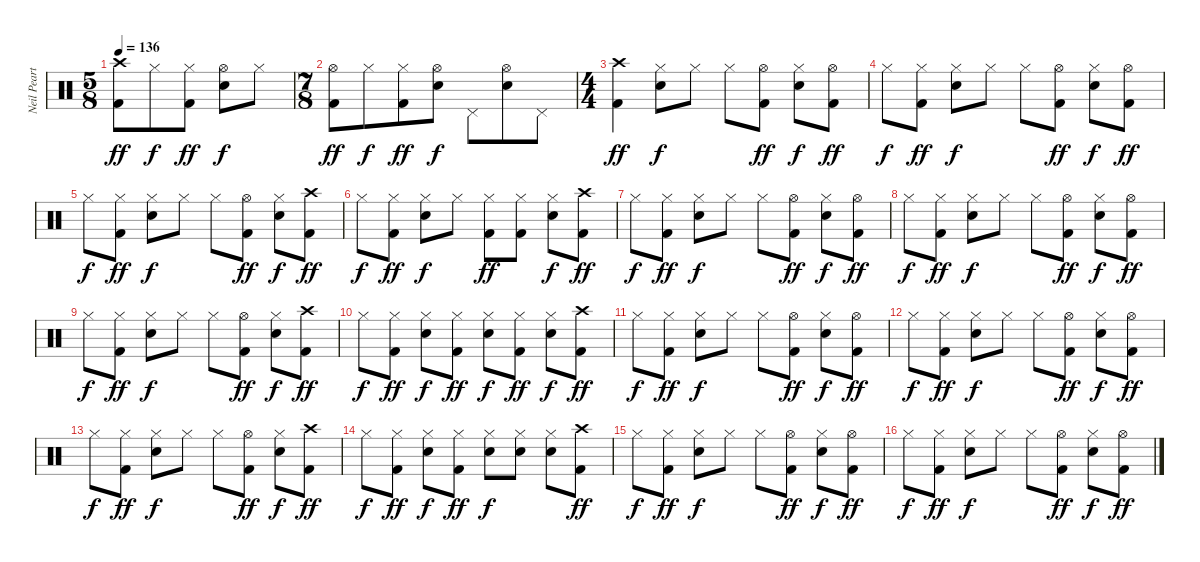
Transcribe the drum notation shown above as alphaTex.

\track ("Neil Peart" "Neil Peart") {instrument percussion}
\staff {score}
\articulation defaults
\ts (5 8)
\tempo 136
\clef neutral
\ks c
("Crash high (hit)" "Kick (hit) 2").8{dy ff} "Hi-Hat (closed)".8{dy f} ("Hi-Hat (closed)" "Kick (hit) 2").8{dy ff} ("Hi-Hat (open)" "Snare (hit) 2").8{dy f} "Hi-Hat (closed)".8 |
\ts (7 8)
("Hi-Hat (open)" "Kick (hit) 2").8{dy ff} "Hi-Hat (closed)".8{dy f} ("Hi-Hat (closed)" "Kick (hit) 2").8{dy ff} ("Hi-Hat (open)" "Snare (hit) 2").8{dy f} "Pedal Hi-Hat (hit)".8 ("Hi-Hat (open)" "Snare (hit) 2").8 "Pedal Hi-Hat (hit)".8 |
\ts (4 4)
("Crash high (hit)" "Kick (hit) 2").4{dy ff} ("Hi-Hat (closed)" "Snare (hit) 2").8{dy f} "Hi-Hat (closed)".8 "Hi-Hat (closed)".8 ("Hi-Hat (open)" "Kick (hit) 2").8{dy ff} ("Hi-Hat (closed)" "Snare (hit) 2").8{dy f} ("Hi-Hat (open)" "Kick (hit) 2").8{dy ff} |
"Hi-Hat (closed)".8{dy f} ("Hi-Hat (closed)" "Kick (hit) 2").8{dy ff} ("Hi-Hat (closed)" "Snare (hit) 2").8{dy f} "Hi-Hat (closed)".8 "Hi-Hat (closed)".8 ("Hi-Hat (open)" "Kick (hit) 2").8{dy ff} ("Hi-Hat (closed)" "Snare (hit) 2").8{dy f} ("Hi-Hat (open)" "Kick (hit) 2").8{dy ff} |
"Hi-Hat (closed)".8{dy f} ("Hi-Hat (closed)" "Kick (hit) 2").8{dy ff} ("Hi-Hat (closed)" "Snare (hit) 2").8{dy f} "Hi-Hat (closed)".8 "Hi-Hat (closed)".8 ("Hi-Hat (open)" "Kick (hit) 2").8{dy ff} ("Hi-Hat (closed)" "Snare (hit) 2").8{dy f} ("Crash high (hit)" "Kick (hit) 2").8{dy ff} |
"Hi-Hat (closed)".8{dy f} ("Hi-Hat (closed)" "Kick (hit) 2").8{dy ff} ("Hi-Hat (closed)" "Snare (hit) 2").8{dy f} "Hi-Hat (closed)".8 ("Hi-Hat (closed)" "Kick (hit) 2").8{dy ff} ("Hi-Hat (closed)" "Kick (hit) 2").8 ("Hi-Hat (closed)" "Snare (hit) 2").8{dy f} ("Crash high (hit)" "Kick (hit) 2").8{dy ff} |
"Hi-Hat (closed)".8{dy f} ("Hi-Hat (closed)" "Kick (hit) 2").8{dy ff} ("Hi-Hat (closed)" "Snare (hit) 2").8{dy f} "Hi-Hat (closed)".8 "Hi-Hat (closed)".8 ("Hi-Hat (open)" "Kick (hit) 2").8{dy ff} ("Hi-Hat (closed)" "Snare (hit) 2").8{dy f} ("Hi-Hat (open)" "Kick (hit) 2").8{dy ff} |
"Hi-Hat (closed)".8{dy f} ("Hi-Hat (closed)" "Kick (hit) 2").8{dy ff} ("Hi-Hat (closed)" "Snare (hit) 2").8{dy f} "Hi-Hat (closed)".8 "Hi-Hat (closed)".8 ("Hi-Hat (open)" "Kick (hit) 2").8{dy ff} ("Hi-Hat (closed)" "Snare (hit) 2").8{dy f} ("Hi-Hat (open)" "Kick (hit) 2").8{dy ff} |
"Hi-Hat (closed)".8{dy f} ("Hi-Hat (closed)" "Kick (hit) 2").8{dy ff} ("Hi-Hat (closed)" "Snare (hit) 2").8{dy f} "Hi-Hat (closed)".8 "Hi-Hat (closed)".8 ("Hi-Hat (open)" "Kick (hit) 2").8{dy ff} ("Hi-Hat (closed)" "Snare (hit) 2").8{dy f} ("Crash high (hit)" "Kick (hit) 2").8{dy ff} |
"Hi-Hat (closed)".8{dy f} ("Hi-Hat (closed)" "Kick (hit) 2").8{dy ff} ("Hi-Hat (closed)" "Snare (hit) 2").8{dy f} ("Hi-Hat (closed)" "Kick (hit) 2").8{dy ff} ("Hi-Hat (closed)" "Snare (hit) 2").8{dy f} ("Hi-Hat (closed)" "Kick (hit) 2").8{dy ff} ("Hi-Hat (closed)" "Snare (hit) 2").8{dy f} ("Crash high (hit)" "Kick (hit) 2").8{dy ff} |
"Hi-Hat (closed)".8{dy f} ("Hi-Hat (closed)" "Kick (hit) 2").8{dy ff} ("Hi-Hat (closed)" "Snare (hit) 2").8{dy f} "Hi-Hat (closed)".8 "Hi-Hat (closed)".8 ("Hi-Hat (open)" "Kick (hit) 2").8{dy ff} ("Hi-Hat (closed)" "Snare (hit) 2").8{dy f} ("Hi-Hat (open)" "Kick (hit) 2").8{dy ff} |
"Hi-Hat (closed)".8{dy f} ("Hi-Hat (closed)" "Kick (hit) 2").8{dy ff} ("Hi-Hat (closed)" "Snare (hit) 2").8{dy f} "Hi-Hat (closed)".8 "Hi-Hat (closed)".8 ("Hi-Hat (open)" "Kick (hit) 2").8{dy ff} ("Hi-Hat (closed)" "Snare (hit) 2").8{dy f} ("Hi-Hat (open)" "Kick (hit) 2").8{dy ff} |
"Hi-Hat (closed)".8{dy f} ("Hi-Hat (closed)" "Kick (hit) 2").8{dy ff} ("Hi-Hat (closed)" "Snare (hit) 2").8{dy f} "Hi-Hat (closed)".8 "Hi-Hat (closed)".8 ("Hi-Hat (open)" "Kick (hit) 2").8{dy ff} ("Hi-Hat (closed)" "Snare (hit) 2").8{dy f} ("Crash high (hit)" "Kick (hit) 2").8{dy ff} |
"Hi-Hat (closed)".8{dy f} ("Hi-Hat (closed)" "Kick (hit) 2").8{dy ff} ("Hi-Hat (closed)" "Snare (hit) 2").8{dy f} ("Hi-Hat (closed)" "Kick (hit) 2").8{dy ff} ("Hi-Hat (closed)" "Snare (hit) 2").8{dy f} ("Hi-Hat (closed)" "Snare (hit) 2").8 ("Hi-Hat (closed)" "Snare (hit) 2").8 ("Crash high (hit)" "Kick (hit) 2").8{dy ff} |
"Hi-Hat (closed)".8{dy f} ("Hi-Hat (closed)" "Kick (hit) 2").8{dy ff} ("Hi-Hat (closed)" "Snare (hit) 2").8{dy f} "Hi-Hat (closed)".8 "Hi-Hat (closed)".8 ("Hi-Hat (open)" "Kick (hit) 2").8{dy ff} ("Hi-Hat (closed)" "Snare (hit) 2").8{dy f} ("Hi-Hat (open)" "Kick (hit) 2").8{dy ff} |
"Hi-Hat (closed)".8{dy f} ("Hi-Hat (closed)" "Kick (hit) 2").8{dy ff} ("Hi-Hat (closed)" "Snare (hit) 2").8{dy f} "Hi-Hat (closed)".8 "Hi-Hat (closed)".8 ("Hi-Hat (open)" "Kick (hit) 2").8{dy ff} ("Hi-Hat (closed)" "Snare (hit) 2").8{dy f} ("Hi-Hat (open)" "Kick (hit) 2").8{dy ff}
